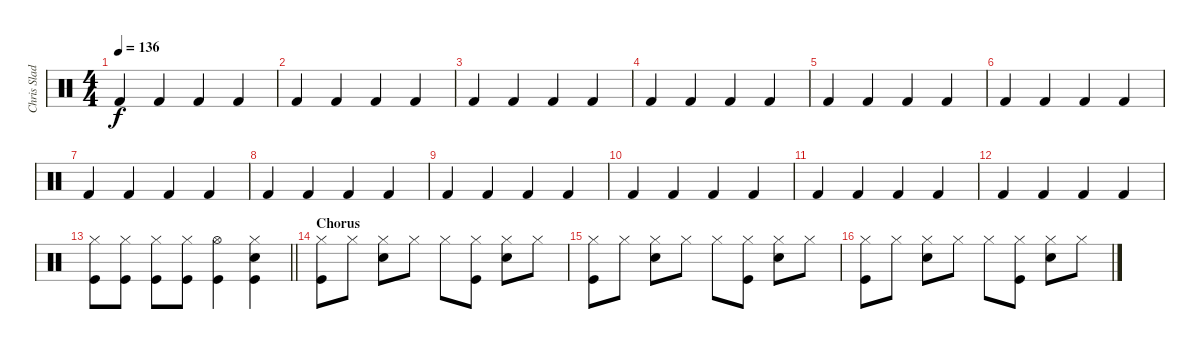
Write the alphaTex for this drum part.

\track ("Chris Slade" "Chris Slad") {instrument percussion}
\staff {score}
\articulation defaults
\ts (4 4)
\tempo 136
\clef neutral
\ks c "Kick (hit) 2".4{dy f} "Kick (hit) 2".4 "Kick (hit) 2".4 "Kick (hit) 2".4
|
"Kick (hit) 2".4 "Kick (hit) 2".4 "Kick (hit) 2".4 "Kick (hit) 2".4 |
"Kick (hit) 2".4 "Kick (hit) 2".4 "Kick (hit) 2".4 "Kick (hit) 2".4 |
"Kick (hit) 2".4 "Kick (hit) 2".4 "Kick (hit) 2".4 "Kick (hit) 2".4 |
"Kick (hit) 2".4 "Kick (hit) 2".4 "Kick (hit) 2".4 "Kick (hit) 2".4 |
"Kick (hit) 2".4 "Kick (hit) 2".4 "Kick (hit) 2".4 "Kick (hit) 2".4 |
"Kick (hit) 2".4 "Kick (hit) 2".4 "Kick (hit) 2".4 "Kick (hit) 2".4 |
"Kick (hit) 2".4 "Kick (hit) 2".4 "Kick (hit) 2".4 "Kick (hit) 2".4 |
"Kick (hit) 2".4 "Kick (hit) 2".4 "Kick (hit) 2".4 "Kick (hit) 2".4 |
"Kick (hit) 2".4 "Kick (hit) 2".4 "Kick (hit) 2".4 "Kick (hit) 2".4 |
"Kick (hit) 2".4 "Kick (hit) 2".4 "Kick (hit) 2".4 "Kick (hit) 2".4 |
"Kick (hit) 2".4 "Kick (hit) 2".4 "Kick (hit) 2".4 "Kick (hit) 2".4 |
\barLineRight lightlight
("Hi-Hat (closed)" "Kick (hit)").8 ("Hi-Hat (closed)" "Kick (hit)").8 ("Hi-Hat (closed)" "Kick (hit)").8 ("Hi-Hat (closed)" "Kick (hit)").8 ("Hi-Hat (open)" "Kick (hit)").4 ("Hi-Hat (closed)" "Snare (hit) 2" "Kick (hit)").4 |
\section ("" "Chorus")
("Hi-Hat (closed)" "Kick (hit)").8 "Hi-Hat (closed)".8 ("Hi-Hat (closed)" "Snare (hit) 2").8 "Hi-Hat (closed)".8 "Hi-Hat (closed)".8 ("Hi-Hat (closed)" "Kick (hit)").8 ("Hi-Hat (closed)" "Snare (hit) 2").8 "Hi-Hat (closed)".8 |
("Hi-Hat (closed)" "Kick (hit)").8 "Hi-Hat (closed)".8 ("Hi-Hat (closed)" "Snare (hit) 2").8 "Hi-Hat (closed)".8 "Hi-Hat (closed)".8 ("Hi-Hat (closed)" "Kick (hit)").8 ("Hi-Hat (closed)" "Snare (hit) 2").8 "Hi-Hat (closed)".8 |
("Hi-Hat (closed)" "Kick (hit)").8 "Hi-Hat (closed)".8 ("Hi-Hat (closed)" "Snare (hit) 2").8 "Hi-Hat (closed)".8 "Hi-Hat (closed)".8 ("Hi-Hat (closed)" "Kick (hit)").8 ("Hi-Hat (closed)" "Snare (hit) 2").8 "Hi-Hat (closed)".8
